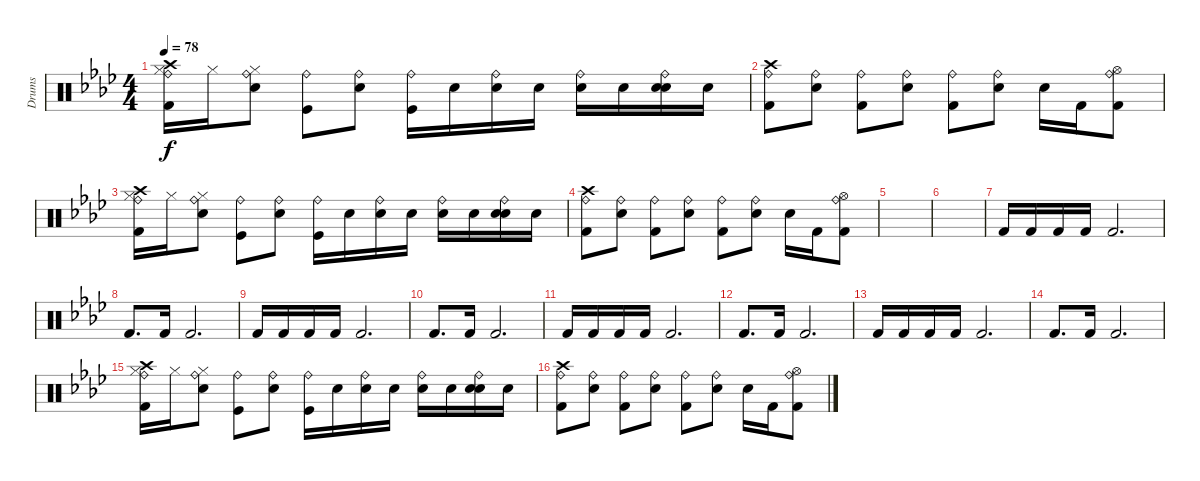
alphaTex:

\track ("Drums" "Drums") {instrument percussion}
\staff {score}
\articulation defaults
\ts (4 4)
\tempo 78
\clef neutral
\ks fminor
("Crash high (hit)" "Ride (bell)" "Hi-Hat (closed)" "Kick (hit) 2").16{dy f} "Hi-Hat (closed)".16 ("Ride (bell)" "Hi-Hat (closed)" "Snare (hit) 2").8 ("Ride (bell)" "Kick (hit)").8 ("Ride (bell)" "Snare (hit) 2").8 ("Ride (bell)" "Kick (hit)").16 "Snare (hit) 2".16 ("Ride (bell)" "Snare (hit) 2").16 "Snare (hit) 2".16 ("Ride (bell)" "Snare (hit) 2").16 "Snare (hit) 2".16 ("Ride (bell)" "Hand Clap (hit)" "Snare (hit) 2").16 "Snare (hit) 2".16 |
("Crash high (hit)" "Ride (bell)" "Kick (hit) 2").8 ("Ride (bell)" "Snare (hit) 2").8 ("Ride (bell)" "Kick (hit) 2").8 ("Ride (bell)" "Snare (hit) 2").8 ("Ride (bell)" "Kick (hit) 2").8 ("Ride (bell)" "Snare (hit) 2").8 "Snare (hit) 2".16 "Kick (hit) 2".16 ("Ride (bell)" "Hi-Hat (open)" "Kick (hit) 2").8 |
("Crash high (hit)" "Ride (bell)" "Hi-Hat (closed)" "Kick (hit) 2").16 "Hi-Hat (closed)".16 ("Ride (bell)" "Hi-Hat (closed)" "Snare (hit) 2").8 ("Ride (bell)" "Kick (hit)").8 ("Ride (bell)" "Snare (hit) 2").8 ("Ride (bell)" "Kick (hit)").16 "Snare (hit) 2".16 ("Ride (bell)" "Snare (hit) 2").16 "Snare (hit) 2".16 ("Ride (bell)" "Snare (hit) 2").16 "Snare (hit) 2".16 ("Ride (bell)" "Hand Clap (hit)" "Snare (hit) 2").16 "Snare (hit) 2".16 |
("Crash high (hit)" "Ride (bell)" "Kick (hit) 2").8 ("Ride (bell)" "Snare (hit) 2").8 ("Ride (bell)" "Kick (hit) 2").8 ("Ride (bell)" "Snare (hit) 2").8 ("Ride (bell)" "Kick (hit) 2").8 ("Ride (bell)" "Snare (hit) 2").8 "Snare (hit) 2".16 "Kick (hit) 2".16 ("Ride (bell)" "Hi-Hat (open)" "Kick (hit) 2").8 |
|
|
"Kick (hit) 2".16 "Kick (hit) 2".16 "Kick (hit) 2".16 "Kick (hit) 2".16 "Kick (hit) 2".2{d} |
"Kick (hit) 2".8{d} "Kick (hit) 2".16 "Kick (hit) 2".2{d} |
"Kick (hit) 2".16 "Kick (hit) 2".16 "Kick (hit) 2".16 "Kick (hit) 2".16 "Kick (hit) 2".2{d} |
"Kick (hit) 2".8{d} "Kick (hit) 2".16 "Kick (hit) 2".2{d} |
"Kick (hit) 2".16 "Kick (hit) 2".16 "Kick (hit) 2".16 "Kick (hit) 2".16 "Kick (hit) 2".2{d} |
"Kick (hit) 2".8{d} "Kick (hit) 2".16 "Kick (hit) 2".2{d} |
"Kick (hit) 2".16 "Kick (hit) 2".16 "Kick (hit) 2".16 "Kick (hit) 2".16 "Kick (hit) 2".2{d} |
"Kick (hit) 2".8{d} "Kick (hit) 2".16 "Kick (hit) 2".2{d} |
("Crash high (hit)" "Ride (bell)" "Hi-Hat (closed)" "Kick (hit) 2").16 "Hi-Hat (closed)".16 ("Ride (bell)" "Hi-Hat (closed)" "Snare (hit) 2").8 ("Ride (bell)" "Kick (hit)").8 ("Ride (bell)" "Snare (hit) 2").8 ("Ride (bell)" "Kick (hit)").16 "Snare (hit) 2".16 ("Ride (bell)" "Snare (hit) 2").16 "Snare (hit) 2".16 ("Ride (bell)" "Snare (hit) 2").16 "Snare (hit) 2".16 ("Ride (bell)" "Hand Clap (hit)" "Snare (hit) 2").16 "Snare (hit) 2".16 |
("Crash high (hit)" "Ride (bell)" "Kick (hit) 2").8 ("Ride (bell)" "Snare (hit) 2").8 ("Ride (bell)" "Kick (hit) 2").8 ("Ride (bell)" "Snare (hit) 2").8 ("Ride (bell)" "Kick (hit) 2").8 ("Ride (bell)" "Snare (hit) 2").8 "Snare (hit) 2".16 "Kick (hit) 2".16 ("Ride (bell)" "Hi-Hat (open)" "Kick (hit) 2").8
